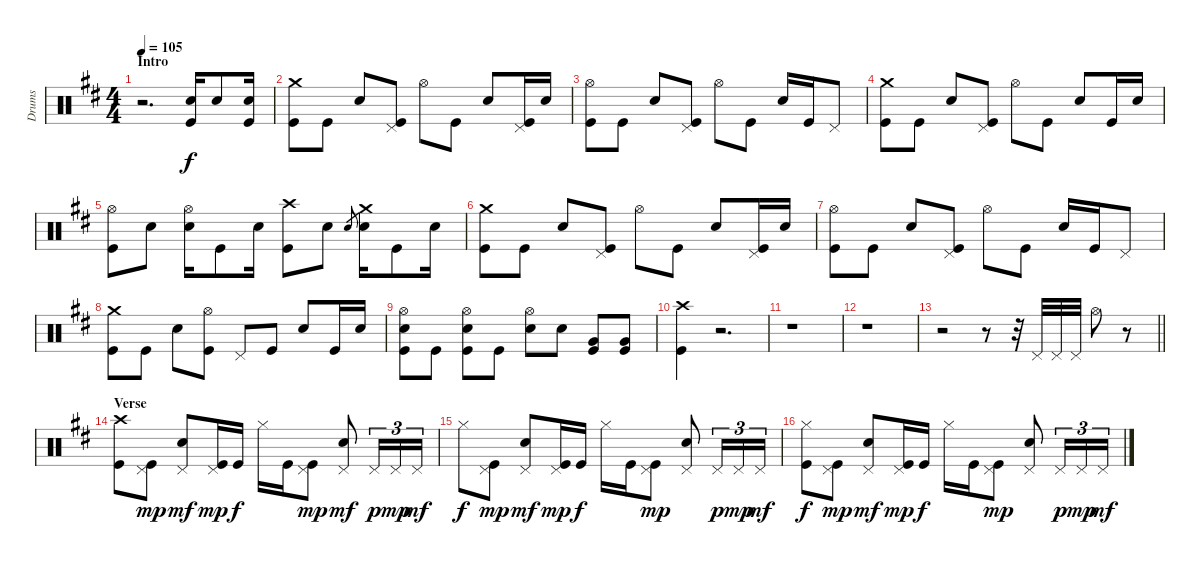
\track ("Drums" "Drums") {instrument percussion}
\staff {score}
\articulation defaults
\ts (4 4)
\section ("" "Intro")
\tempo 105
\clef neutral
\ks d
r.2{d dy f} ("Snare (hit) 2" "Kick (hit)").16 "Snare (hit) 2".8 ("Snare (hit) 2" "Kick (hit)").16 |
("Crash medium (hit)" "Kick (hit)").8 "Kick (hit)".8 "Snare (hit) 2".8 ("Pedal Hi-Hat (hit)" "Kick (hit)").8 "Hi-Hat (open)".8 "Kick (hit)".8 "Snare (hit) 2".8 ("Pedal Hi-Hat (hit)" "Kick (hit)").16 "Snare (hit) 2".16 |
("Hi-Hat (open)" "Kick (hit)").8 "Kick (hit)".8 "Snare (hit) 2".8 ("Pedal Hi-Hat (hit)" "Kick (hit)").8 "Hi-Hat (open)".8 "Kick (hit)".8 "Snare (hit) 2".16 "Kick (hit)".16 "Pedal Hi-Hat (hit)".8 |
("Crash medium (hit)" "Kick (hit)").8 "Kick (hit)".8 "Snare (hit) 2".8 ("Pedal Hi-Hat (hit)" "Kick (hit)").8 "Hi-Hat (open)".8 "Kick (hit)".8 "Snare (hit) 2".8 "Kick (hit)".16 "Snare (hit) 2".16 |
("Hi-Hat (open)" "Kick (hit)").8 "Snare (hit) 2".8 ("Hi-Hat (open)" "Snare (hit) 2").16 "Kick (hit)".8 "Snare (hit) 2".16 ("Crash high (hit)" "Kick (hit)").8 "Snare (hit) 2".8 "Snare (hit) 2".8{gr} ("Crash medium (hit)" "Snare (hit) 2").16 "Kick (hit)".8 "Snare (hit) 2".16 |
("Crash medium (hit)" "Kick (hit)").8 "Kick (hit)".8 "Snare (hit) 2".8 ("Pedal Hi-Hat (hit)" "Kick (hit)").8 "Hi-Hat (open)".8 "Kick (hit)".8 "Snare (hit) 2".8 ("Pedal Hi-Hat (hit)" "Kick (hit)").16 "Snare (hit) 2".16 |
("Hi-Hat (open)" "Kick (hit)").8 "Kick (hit)".8 "Snare (hit) 2".8 ("Pedal Hi-Hat (hit)" "Kick (hit)").8 "Hi-Hat (open)".8 "Kick (hit)".8 "Snare (hit) 2".16 "Kick (hit)".16 "Pedal Hi-Hat (hit)".8 |
("Crash medium (hit)" "Kick (hit)").8 "Kick (hit)".8 "Snare (hit) 2".8 ("Hi-Hat (open)" "Kick (hit)").8 "Pedal Hi-Hat (hit)".8 "Kick (hit)".8 "Snare (hit) 2".8 "Kick (hit)".16 "Snare (hit) 2".16 |
("Hi-Hat (open)" "Snare (hit) 2" "Kick (hit)").8 "Kick (hit)".8 ("Hi-Hat (open)" "Snare (hit) 2" "Kick (hit)").8 "Kick (hit)".8 ("Hi-Hat (open)" "Snare (hit) 2").8 "Snare (hit) 2".8 ("Very Low Tom (hit)" "Kick (hit)").8 ("Very Low Tom (hit)" "Kick (hit)").8 |
("Crash high (hit)" "Kick (hit)").4 r.2{d} |
r.1 |
r.1 |
\barLineRight lightlight
r.2 r.8 r.32 "Pedal Hi-Hat (hit)".32 "Pedal Hi-Hat (hit)".32 "Pedal Hi-Hat (hit)".32 "Hi-Hat (open)".8 r.8 |
\section ("" "Verse")
("Crash high (hit)" "Kick (hit)").8 ("Pedal Hi-Hat (hit)" "Kick (hit)").8{dy mp} ("Pedal Hi-Hat (hit)" "Snare (hit) 2").8{dy mf} ("Pedal Hi-Hat (hit)" "Kick (hit)").16{dy mp} "Kick (hit)".16{dy f} "Hi-Hat (closed)".16 "Kick (hit)".16 ("Pedal Hi-Hat (hit)" "Kick (hit)").8{dy mp} ("Pedal Hi-Hat (hit)" "Snare (hit) 2").8{dy mf} "Pedal Hi-Hat (hit)".16{tu (3 2) dy p} "Pedal Hi-Hat (hit)".16{tu (3 2) dy mp} "Pedal Hi-Hat (hit)".16{tu (3 2) dy mf} |
"Hi-Hat (closed)".8{dy f} ("Pedal Hi-Hat (hit)" "Kick (hit)").8{dy mp} ("Pedal Hi-Hat (hit)" "Snare (hit) 2").8{dy mf} ("Pedal Hi-Hat (hit)" "Kick (hit)").16{dy mp} "Kick (hit)".16{dy f} "Hi-Hat (closed)".16 "Kick (hit)".16 ("Pedal Hi-Hat (hit)" "Kick (hit)").8{dy mp} ("Pedal Hi-Hat (hit)" "Snare (hit) 2").8 "Pedal Hi-Hat (hit)".16{tu (3 2) dy p} "Pedal Hi-Hat (hit)".16{tu (3 2) dy mp} "Pedal Hi-Hat (hit)".16{tu (3 2) dy mf} |
("Hi-Hat (closed)" "Kick (hit)").8{dy f} ("Pedal Hi-Hat (hit)" "Kick (hit)").8{dy mp} ("Pedal Hi-Hat (hit)" "Snare (hit) 2").8{dy mf} ("Pedal Hi-Hat (hit)" "Kick (hit)").16{dy mp} "Kick (hit)".16{dy f} "Hi-Hat (closed)".16 "Kick (hit)".16 ("Pedal Hi-Hat (hit)" "Kick (hit)").8{dy mp} ("Pedal Hi-Hat (hit)" "Snare (hit) 2").8 "Pedal Hi-Hat (hit)".16{tu (3 2) dy p} "Pedal Hi-Hat (hit)".16{tu (3 2) dy mp} "Pedal Hi-Hat (hit)".16{tu (3 2) dy mf}
